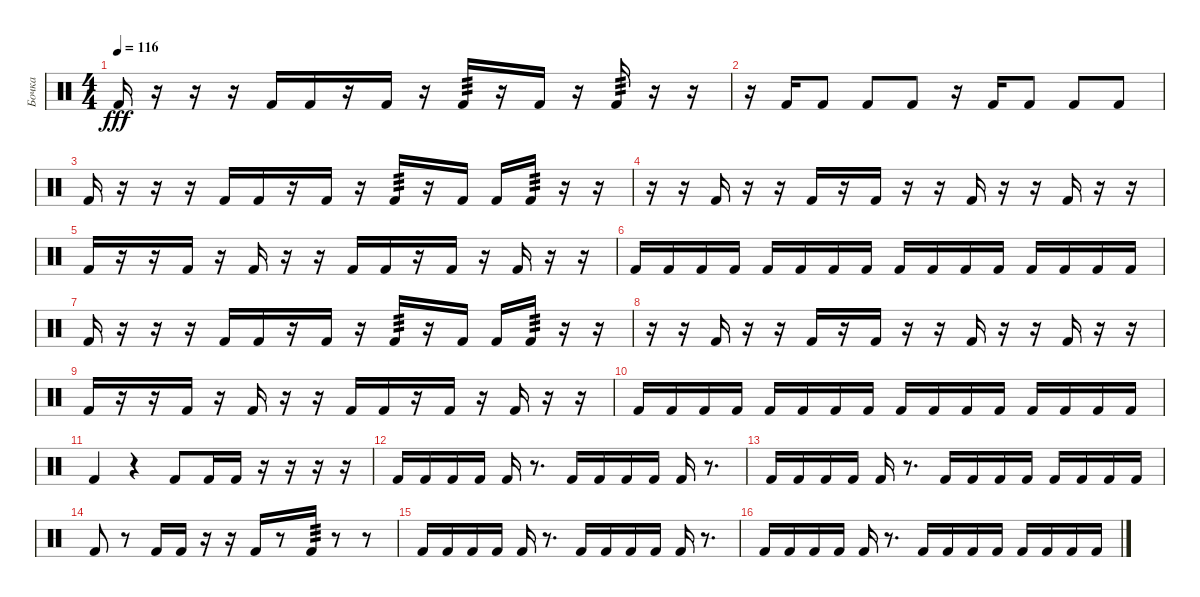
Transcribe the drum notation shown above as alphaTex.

\track ("Бочка" "Бочка") {instrument percussion}
\staff {score}
\articulation defaults
\ts (4 4)
\tempo 116
\clef neutral
\ks c "Kick (hit) 2".16{dy fff}
r.16 r.16 r.16 "Kick (hit) 2".16 "Kick (hit) 2".16 r.16 "Kick (hit) 2".16 r.16 "Kick (hit) 2".16{tp 3} r.16 "Kick (hit) 2".16 r.16 "Kick (hit) 2".16{tp 3} r.16 r.16 |
r.16 "Kick (hit) 2".16 "Kick (hit) 2".8 "Kick (hit) 2".8 "Kick (hit) 2".8 r.16 "Kick (hit) 2".16 "Kick (hit) 2".8 "Kick (hit) 2".8 "Kick (hit) 2".8 |
"Kick (hit) 2".16 r.16 r.16 r.16 "Kick (hit) 2".16 "Kick (hit) 2".16 r.16 "Kick (hit) 2".16 r.16 "Kick (hit) 2".16{tp 3} r.16 "Kick (hit) 2".16 "Kick (hit) 2".16 "Kick (hit) 2".16{tp 3} r.16 r.16 |
r.16 r.16 "Kick (hit) 2".16 r.16 r.16 "Kick (hit) 2".16 r.16 "Kick (hit) 2".16 r.16 r.16 "Kick (hit) 2".16 r.16 r.16 "Kick (hit) 2".16 r.16 r.16 |
"Kick (hit) 2".16 r.16 r.16 "Kick (hit) 2".16 r.16 "Kick (hit) 2".16 r.16 r.16 "Kick (hit) 2".16 "Kick (hit) 2".16 r.16 "Kick (hit) 2".16 r.16 "Kick (hit) 2".16 r.16 r.16 |
"Kick (hit) 2".16 "Kick (hit) 2".16 "Kick (hit) 2".16 "Kick (hit) 2".16 "Kick (hit) 2".16 "Kick (hit) 2".16 "Kick (hit) 2".16 "Kick (hit) 2".16 "Kick (hit) 2".16 "Kick (hit) 2".16 "Kick (hit) 2".16 "Kick (hit) 2".16 "Kick (hit) 2".16 "Kick (hit) 2".16 "Kick (hit) 2".16 "Kick (hit) 2".16 |
"Kick (hit) 2".16 r.16 r.16 r.16 "Kick (hit) 2".16 "Kick (hit) 2".16 r.16 "Kick (hit) 2".16 r.16 "Kick (hit) 2".16{tp 3} r.16 "Kick (hit) 2".16 "Kick (hit) 2".16 "Kick (hit) 2".16{tp 3} r.16 r.16 |
r.16 r.16 "Kick (hit) 2".16 r.16 r.16 "Kick (hit) 2".16 r.16 "Kick (hit) 2".16 r.16 r.16 "Kick (hit) 2".16 r.16 r.16 "Kick (hit) 2".16 r.16 r.16 |
"Kick (hit) 2".16 r.16 r.16 "Kick (hit) 2".16 r.16 "Kick (hit) 2".16 r.16 r.16 "Kick (hit) 2".16 "Kick (hit) 2".16 r.16 "Kick (hit) 2".16 r.16 "Kick (hit) 2".16 r.16 r.16 |
"Kick (hit) 2".16 "Kick (hit) 2".16 "Kick (hit) 2".16 "Kick (hit) 2".16 "Kick (hit) 2".16 "Kick (hit) 2".16 "Kick (hit) 2".16 "Kick (hit) 2".16 "Kick (hit) 2".16 "Kick (hit) 2".16 "Kick (hit) 2".16 "Kick (hit) 2".16 "Kick (hit) 2".16 "Kick (hit) 2".16 "Kick (hit) 2".16 "Kick (hit) 2".16 |
"Kick (hit) 2".4 r.4 "Kick (hit) 2".8 "Kick (hit) 2".16 "Kick (hit) 2".16 r.16 r.16 r.16 r.16 |
"Kick (hit) 2".16 "Kick (hit) 2".16 "Kick (hit) 2".16 "Kick (hit) 2".16 "Kick (hit) 2".16 r.8{d} "Kick (hit) 2".16 "Kick (hit) 2".16 "Kick (hit) 2".16 "Kick (hit) 2".16 "Kick (hit) 2".16 r.8{d} |
"Kick (hit) 2".16 "Kick (hit) 2".16 "Kick (hit) 2".16 "Kick (hit) 2".16 "Kick (hit) 2".16 r.8{d} "Kick (hit) 2".16 "Kick (hit) 2".16 "Kick (hit) 2".16 "Kick (hit) 2".16 "Kick (hit) 2".16 "Kick (hit) 2".16 "Kick (hit) 2".16 "Kick (hit) 2".16 |
"Kick (hit) 2".8 r.8 "Kick (hit) 2".16 "Kick (hit) 2".16 r.16 r.16 "Kick (hit) 2".16 r.8 "Kick (hit) 2".16{tp 3} r.8 r.8 |
"Kick (hit) 2".16 "Kick (hit) 2".16 "Kick (hit) 2".16 "Kick (hit) 2".16 "Kick (hit) 2".16 r.8{d} "Kick (hit) 2".16 "Kick (hit) 2".16 "Kick (hit) 2".16 "Kick (hit) 2".16 "Kick (hit) 2".16 r.8{d} |
"Kick (hit) 2".16 "Kick (hit) 2".16 "Kick (hit) 2".16 "Kick (hit) 2".16 "Kick (hit) 2".16 r.8{d} "Kick (hit) 2".16 "Kick (hit) 2".16 "Kick (hit) 2".16 "Kick (hit) 2".16 "Kick (hit) 2".16 "Kick (hit) 2".16 "Kick (hit) 2".16 "Kick (hit) 2".16
